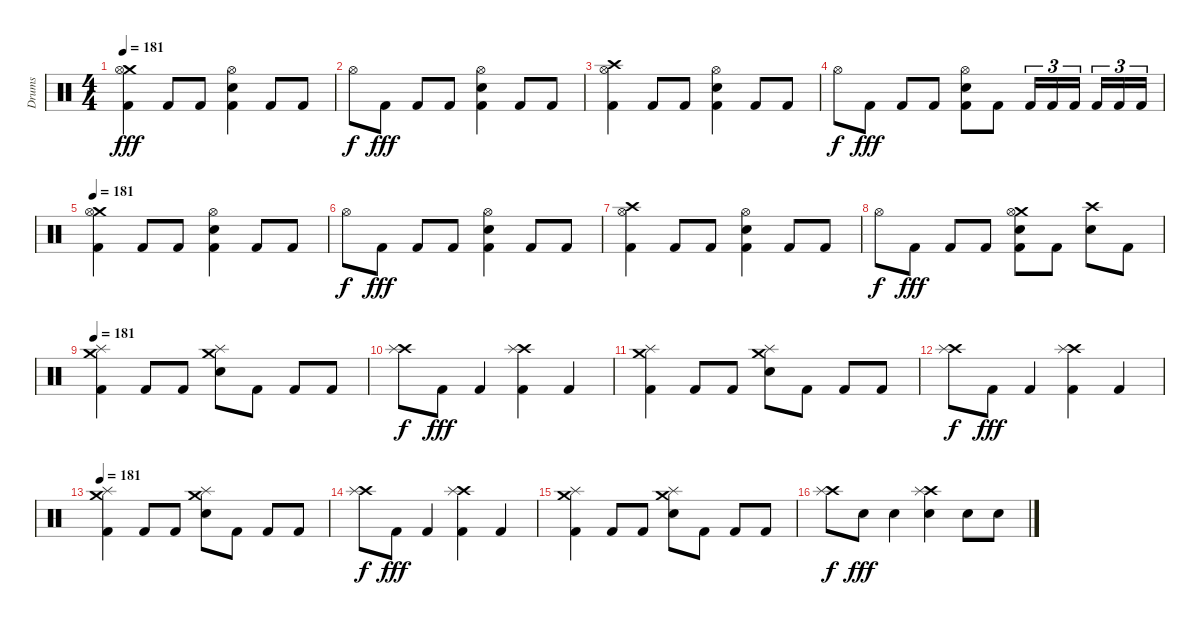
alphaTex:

\track ("Drums" "Drums") {instrument percussion}
\staff {score}
\articulation defaults
\ts (4 4)
\tempo 181
\clef neutral
\ks c
("Crash medium (hit)" "Hi-Hat (open)" "Kick (hit) 2").4{dy fff} "Kick (hit) 2".8 "Kick (hit) 2".8 ("Hi-Hat (open)" "Snare (hit) 2" "Kick (hit) 2").4 "Kick (hit) 2".8 "Kick (hit) 2".8 |
"Hi-Hat (open)".8{dy f} "Kick (hit) 2".8{dy fff} "Kick (hit) 2".8 "Kick (hit) 2".8 ("Hi-Hat (open)" "Snare (hit) 2" "Kick (hit) 2").4 "Kick (hit) 2".8 "Kick (hit) 2".8 |
("Crash high (hit)" "Hi-Hat (open)" "Kick (hit) 2").4 "Kick (hit) 2".8 "Kick (hit) 2".8 ("Hi-Hat (open)" "Snare (hit) 2" "Kick (hit) 2").4 "Kick (hit) 2".8 "Kick (hit) 2".8 |
"Hi-Hat (open)".8{dy f} "Kick (hit) 2".8{dy fff} "Kick (hit) 2".8 "Kick (hit) 2".8 ("Hi-Hat (open)" "Snare (hit) 2" "Kick (hit) 2").8 "Kick (hit) 2".8 "Kick (hit) 2".16{tu (3 2)} "Kick (hit) 2".16{tu (3 2)} "Kick (hit) 2".16{tu (3 2)} "Kick (hit) 2".16{tu (3 2)} "Kick (hit) 2".16{tu (3 2)} "Kick (hit) 2".16{tu (3 2)} |
\tempo 181
("Crash medium (hit)" "Hi-Hat (open)" "Kick (hit) 2").4 "Kick (hit) 2".8 "Kick (hit) 2".8 ("Hi-Hat (open)" "Snare (hit) 2" "Kick (hit) 2").4 "Kick (hit) 2".8 "Kick (hit) 2".8 |
"Hi-Hat (open)".8{dy f} "Kick (hit) 2".8{dy fff} "Kick (hit) 2".8 "Kick (hit) 2".8 ("Hi-Hat (open)" "Snare (hit) 2" "Kick (hit) 2").4 "Kick (hit) 2".8 "Kick (hit) 2".8 |
("Crash high (hit)" "Hi-Hat (open)" "Kick (hit) 2").4 "Kick (hit) 2".8 "Kick (hit) 2".8 ("Hi-Hat (open)" "Snare (hit) 2" "Kick (hit) 2").4 "Kick (hit) 2".8 "Kick (hit) 2".8 |
"Hi-Hat (open)".8{dy f} "Kick (hit) 2".8{dy fff} "Kick (hit) 2".8 "Kick (hit) 2".8 ("Crash medium (hit)" "Hi-Hat (open)" "Snare (hit) 2" "Kick (hit) 2").8 "Kick (hit) 2".8 ("Crash high (hit)" "Snare (hit) 2").8 "Kick (hit) 2".8 |
\tempo 181
("Crash medium (hit)" "Splash (hit)" "Kick (hit) 2").4 "Kick (hit) 2".8 "Kick (hit) 2".8 ("Crash medium (hit)" "Splash (hit)" "Snare (hit) 2").8 "Kick (hit) 2".8 "Kick (hit) 2".8 "Kick (hit) 2".8 |
("Crash high (hit)" "Splash (hit)").8{dy f} "Kick (hit) 2".8{dy fff} "Kick (hit) 2".4 ("Crash high (hit)" "Splash (hit)" "Kick (hit) 2").4 "Kick (hit) 2".4 |
("Crash medium (hit)" "Splash (hit)" "Kick (hit) 2").4 "Kick (hit) 2".8 "Kick (hit) 2".8 ("Crash medium (hit)" "Splash (hit)" "Snare (hit) 2").8 "Kick (hit) 2".8 "Kick (hit) 2".8 "Kick (hit) 2".8 |
("Crash high (hit)" "Splash (hit)").8{dy f} "Kick (hit) 2".8{dy fff} "Kick (hit) 2".4 ("Crash high (hit)" "Splash (hit)" "Kick (hit) 2").4 "Kick (hit) 2".4 |
\tempo 181
("Crash medium (hit)" "Splash (hit)" "Kick (hit) 2").4 "Kick (hit) 2".8 "Kick (hit) 2".8 ("Crash medium (hit)" "Splash (hit)" "Snare (hit) 2").8 "Kick (hit) 2".8 "Kick (hit) 2".8 "Kick (hit) 2".8 |
("Crash high (hit)" "Splash (hit)").8{dy f} "Kick (hit) 2".8{dy fff} "Kick (hit) 2".4 ("Crash high (hit)" "Splash (hit)" "Kick (hit) 2").4 "Kick (hit) 2".4 |
("Crash medium (hit)" "Splash (hit)" "Kick (hit) 2").4 "Kick (hit) 2".8 "Kick (hit) 2".8 ("Crash medium (hit)" "Splash (hit)" "Snare (hit) 2").8 "Kick (hit) 2".8 "Kick (hit) 2".8 "Kick (hit) 2".8 |
("Crash high (hit)" "Splash (hit)").8{dy f} "Snare (hit) 2".8{dy fff} "Snare (hit) 2".4 ("Crash high (hit)" "Splash (hit)" "Snare (hit) 2").4 "Snare (hit) 2".8 "Snare (hit) 2".8
